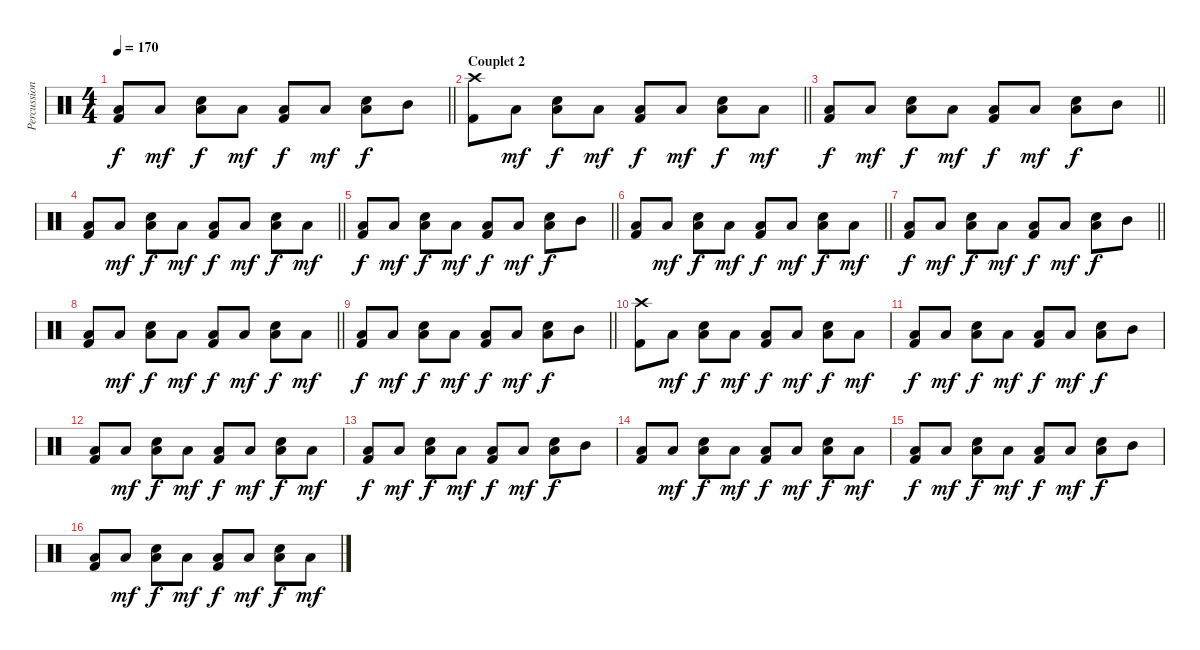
\track ("Percussions" "Percussion") {instrument percussion}
\staff {score}
\articulation defaults
\ts (4 4)
\tempo 170
\clef neutral
\barLineRight lightlight
\ks c
("Kick (hit) 2" "Low Floor Tom (hit)").8{dy f} "Low Floor Tom (hit)".8{dy mf} ("Electric Snare (hit)" "Low Floor Tom (hit)").8{dy f} "Low Floor Tom (hit)".8{dy mf} ("Kick (hit) 2" "Low Floor Tom (hit)").8{dy f} "Low Floor Tom (hit)".8{dy mf} ("Electric Snare (hit)" "Low Floor Tom (hit)").8{dy f} "Mid Tom (hit)".8 |
\section ("" "Couplet 2")
\barLineRight lightlight
("Kick (hit) 2" "Crash high (hit)").8 "Low Floor Tom (hit)".8{dy mf} ("Electric Snare (hit)" "Low Floor Tom (hit)").8{dy f} "Low Floor Tom (hit)".8{dy mf} ("Kick (hit) 2" "Low Floor Tom (hit)").8{dy f} "Low Floor Tom (hit)".8{dy mf} ("Electric Snare (hit)" "Low Floor Tom (hit)").8{dy f} "Low Floor Tom (hit)".8{dy mf} |
\barLineRight lightlight
("Kick (hit) 2" "Low Floor Tom (hit)").8{dy f} "Low Floor Tom (hit)".8{dy mf} ("Electric Snare (hit)" "Low Floor Tom (hit)").8{dy f} "Low Floor Tom (hit)".8{dy mf} ("Kick (hit) 2" "Low Floor Tom (hit)").8{dy f} "Low Floor Tom (hit)".8{dy mf} ("Electric Snare (hit)" "Low Floor Tom (hit)").8{dy f} "Mid Tom (hit)".8 |
\barLineRight lightlight
("Kick (hit) 2" "Low Floor Tom (hit)").8 "Low Floor Tom (hit)".8{dy mf} ("Electric Snare (hit)" "Low Floor Tom (hit)").8{dy f} "Low Floor Tom (hit)".8{dy mf} ("Kick (hit) 2" "Low Floor Tom (hit)").8{dy f} "Low Floor Tom (hit)".8{dy mf} ("Electric Snare (hit)" "Low Floor Tom (hit)").8{dy f} "Low Floor Tom (hit)".8{dy mf} |
\barLineRight lightlight
("Kick (hit) 2" "Low Floor Tom (hit)").8{dy f} "Low Floor Tom (hit)".8{dy mf} ("Electric Snare (hit)" "Low Floor Tom (hit)").8{dy f} "Low Floor Tom (hit)".8{dy mf} ("Kick (hit) 2" "Low Floor Tom (hit)").8{dy f} "Low Floor Tom (hit)".8{dy mf} ("Electric Snare (hit)" "Low Floor Tom (hit)").8{dy f} "Mid Tom (hit)".8 |
\barLineRight lightlight
("Kick (hit) 2" "Low Floor Tom (hit)").8 "Low Floor Tom (hit)".8{dy mf} ("Electric Snare (hit)" "Low Floor Tom (hit)").8{dy f} "Low Floor Tom (hit)".8{dy mf} ("Kick (hit) 2" "Low Floor Tom (hit)").8{dy f} "Low Floor Tom (hit)".8{dy mf} ("Electric Snare (hit)" "Low Floor Tom (hit)").8{dy f} "Low Floor Tom (hit)".8{dy mf} |
\barLineRight lightlight
("Kick (hit) 2" "Low Floor Tom (hit)").8{dy f} "Low Floor Tom (hit)".8{dy mf} ("Electric Snare (hit)" "Low Floor Tom (hit)").8{dy f} "Low Floor Tom (hit)".8{dy mf} ("Kick (hit) 2" "Low Floor Tom (hit)").8{dy f} "Low Floor Tom (hit)".8{dy mf} ("Electric Snare (hit)" "Low Floor Tom (hit)").8{dy f} "Mid Tom (hit)".8 |
\barLineRight lightlight
("Kick (hit) 2" "Low Floor Tom (hit)").8 "Low Floor Tom (hit)".8{dy mf} ("Electric Snare (hit)" "Low Floor Tom (hit)").8{dy f} "Low Floor Tom (hit)".8{dy mf} ("Kick (hit) 2" "Low Floor Tom (hit)").8{dy f} "Low Floor Tom (hit)".8{dy mf} ("Electric Snare (hit)" "Low Floor Tom (hit)").8{dy f} "Low Floor Tom (hit)".8{dy mf} |
\barLineRight lightlight
("Kick (hit) 2" "Low Floor Tom (hit)").8{dy f} "Low Floor Tom (hit)".8{dy mf} ("Electric Snare (hit)" "Low Floor Tom (hit)").8{dy f} "Low Floor Tom (hit)".8{dy mf} ("Kick (hit) 2" "Low Floor Tom (hit)").8{dy f} "Low Floor Tom (hit)".8{dy mf} ("Electric Snare (hit)" "Low Floor Tom (hit)").8{dy f} "Mid Tom (hit)".8 |
("Kick (hit) 2" "Crash high (hit)").8 "Low Floor Tom (hit)".8{dy mf} ("Electric Snare (hit)" "Low Floor Tom (hit)").8{dy f} "Low Floor Tom (hit)".8{dy mf} ("Kick (hit) 2" "Low Floor Tom (hit)").8{dy f} "Low Floor Tom (hit)".8{dy mf} ("Electric Snare (hit)" "Low Floor Tom (hit)").8{dy f} "Low Floor Tom (hit)".8{dy mf} |
("Kick (hit) 2" "Low Floor Tom (hit)").8{dy f} "Low Floor Tom (hit)".8{dy mf} ("Electric Snare (hit)" "Low Floor Tom (hit)").8{dy f} "Low Floor Tom (hit)".8{dy mf} ("Kick (hit) 2" "Low Floor Tom (hit)").8{dy f} "Low Floor Tom (hit)".8{dy mf} ("Electric Snare (hit)" "Low Floor Tom (hit)").8{dy f} "Mid Tom (hit)".8 |
("Kick (hit) 2" "Low Floor Tom (hit)").8 "Low Floor Tom (hit)".8{dy mf} ("Electric Snare (hit)" "Low Floor Tom (hit)").8{dy f} "Low Floor Tom (hit)".8{dy mf} ("Kick (hit) 2" "Low Floor Tom (hit)").8{dy f} "Low Floor Tom (hit)".8{dy mf} ("Electric Snare (hit)" "Low Floor Tom (hit)").8{dy f} "Low Floor Tom (hit)".8{dy mf} |
("Kick (hit) 2" "Low Floor Tom (hit)").8{dy f} "Low Floor Tom (hit)".8{dy mf} ("Electric Snare (hit)" "Low Floor Tom (hit)").8{dy f} "Low Floor Tom (hit)".8{dy mf} ("Kick (hit) 2" "Low Floor Tom (hit)").8{dy f} "Low Floor Tom (hit)".8{dy mf} ("Electric Snare (hit)" "Low Floor Tom (hit)").8{dy f} "Mid Tom (hit)".8 |
("Kick (hit) 2" "Low Floor Tom (hit)").8 "Low Floor Tom (hit)".8{dy mf} ("Electric Snare (hit)" "Low Floor Tom (hit)").8{dy f} "Low Floor Tom (hit)".8{dy mf} ("Kick (hit) 2" "Low Floor Tom (hit)").8{dy f} "Low Floor Tom (hit)".8{dy mf} ("Electric Snare (hit)" "Low Floor Tom (hit)").8{dy f} "Low Floor Tom (hit)".8{dy mf} |
("Kick (hit) 2" "Low Floor Tom (hit)").8{dy f} "Low Floor Tom (hit)".8{dy mf} ("Electric Snare (hit)" "Low Floor Tom (hit)").8{dy f} "Low Floor Tom (hit)".8{dy mf} ("Kick (hit) 2" "Low Floor Tom (hit)").8{dy f} "Low Floor Tom (hit)".8{dy mf} ("Electric Snare (hit)" "Low Floor Tom (hit)").8{dy f} "Mid Tom (hit)".8 |
("Kick (hit) 2" "Low Floor Tom (hit)").8 "Low Floor Tom (hit)".8{dy mf} ("Electric Snare (hit)" "Low Floor Tom (hit)").8{dy f} "Low Floor Tom (hit)".8{dy mf} ("Kick (hit) 2" "Low Floor Tom (hit)").8{dy f} "Low Floor Tom (hit)".8{dy mf} ("Electric Snare (hit)" "Low Floor Tom (hit)").8{dy f} "Low Floor Tom (hit)".8{dy mf}
